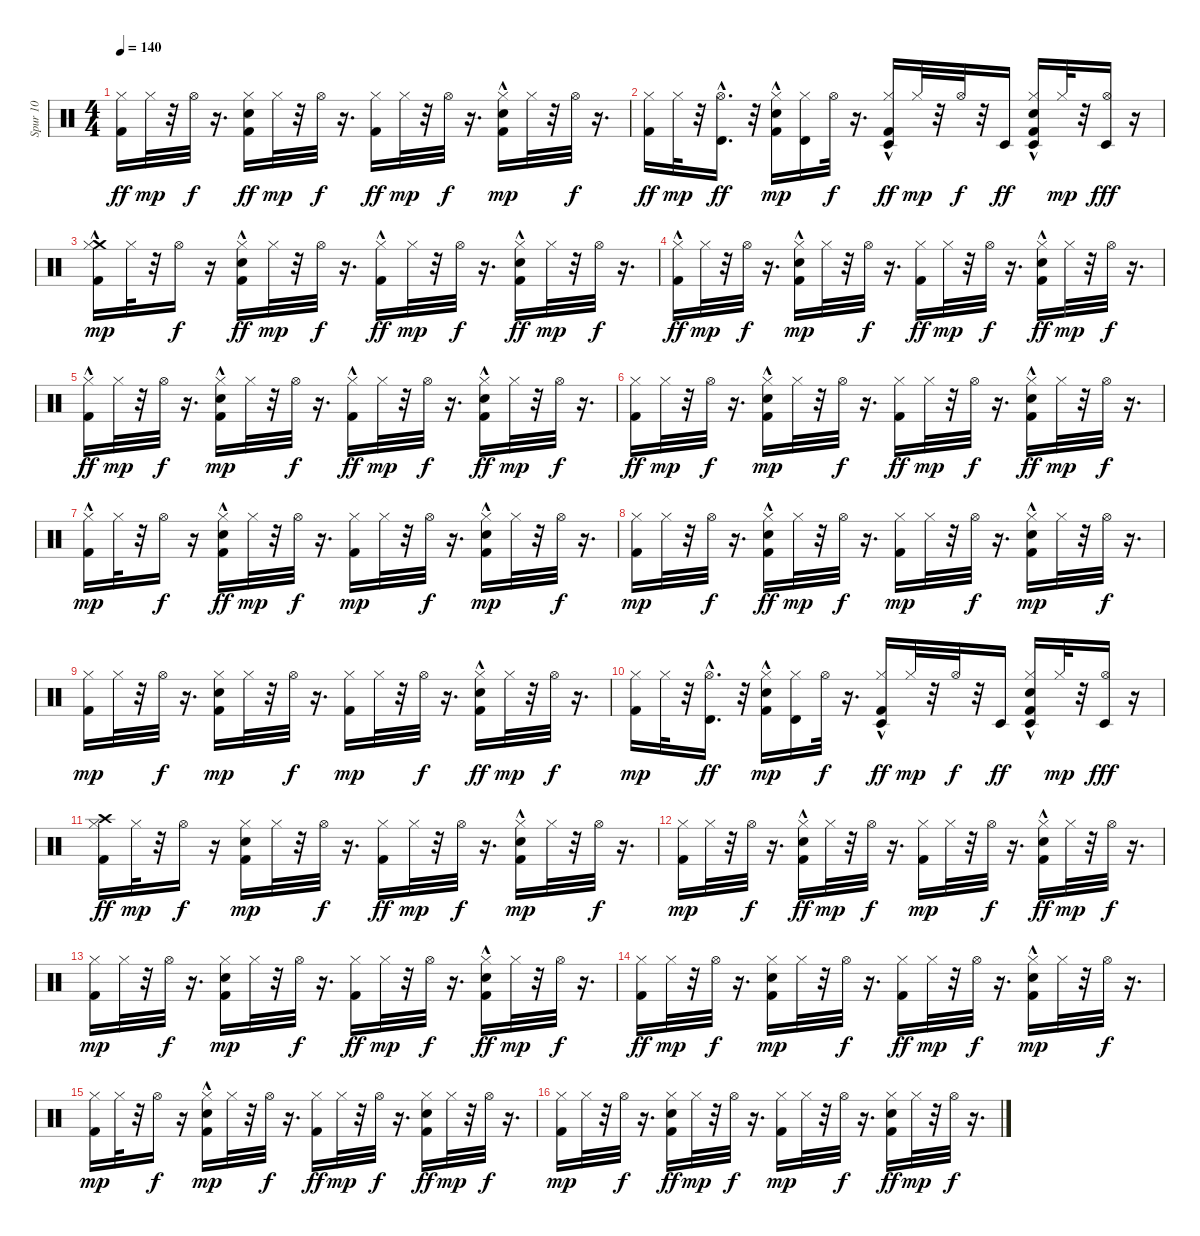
\track ("Spur 10" "Spur 10") {instrument percussion}
\staff {score}
\articulation defaults
\ts (4 4)
\tempo 140
\clef neutral
\ks c
("Hi-Hat (closed)" "Kick (hit) 2").16{dy ff} "Hi-Hat (closed)".32{dy mp} r.32 "Hi-Hat (open)".32{dy f} r.16{d} ("Electric Snare (hit)" "Hi-Hat (closed)" "Kick (hit) 2").16{dy ff} "Hi-Hat (closed)".32{dy mp} r.32 "Hi-Hat (open)".32{dy f} r.16{d} ("Hi-Hat (closed)" "Kick (hit) 2").16{dy ff} "Hi-Hat (closed)".32{dy mp} r.32 "Hi-Hat (open)".32{dy f} r.16{d} ("Kick (hit) 2" "Electric Snare (hit)"{hac} "Hi-Hat (closed)").16{dy mp} "Hi-Hat (closed)".32 r.32 "Hi-Hat (open)".32{dy f} r.16{d} |
("Hi-Hat (closed)" "Kick (hit) 2").16{dy ff} "Hi-Hat (closed)".32{dy mp} r.32 ("Timbale high (hit)"{hac} "Hi-Hat (open)").16{d dy ff} r.32 ("Electric Snare (hit)"{hac} "Kick (hit) 2" "Hi-Hat (closed)").16{dy mp} ("Timbale high (hit)" "Hi-Hat (closed)").16 "Hi-Hat (open)".32{dy f} r.16{d} ("Timbale low (hit)"{hac} "Hi-Hat (closed)" "Kick (hit) 2").16{dy ff} "Hi-Hat (closed)".32{dy mp} r.32 "Hi-Hat (open)".32{dy f} r.32 "Timbale low (hit)".16{dy ff} ("Hi-Hat (closed)" "Timbale low (hit)" "Kick (hit) 2" "Electric Snare (hit)"{hac}).16 "Hi-Hat (closed)".32{dy mp} r.32 ("Timbale low (hit)" "Hi-Hat (open)").16{dy fff} r.16 |
("Crash medium (hit)" "Kick (hit) 2"{hac} "Hi-Hat (closed)").16{dy mp} "Hi-Hat (closed)".32 r.32 "Hi-Hat (open)".16{dy f} r.16 ("Hi-Hat (closed)" "Kick (hit) 2"{hac} "Electric Snare (hit)"{hac}).16{dy ff} "Hi-Hat (closed)".32{dy mp} r.32 "Hi-Hat (open)".32{dy f} r.16{d} ("Hi-Hat (closed)" "Kick (hit) 2"{hac}).16{dy ff} "Hi-Hat (closed)".32{dy mp} r.32 "Hi-Hat (open)".32{dy f} r.16{d} ("Electric Snare (hit)" "Hi-Hat (closed)" "Kick (hit) 2"{hac}).16{dy ff} "Hi-Hat (closed)".32{dy mp} r.32 "Hi-Hat (open)".32{dy f} r.16{d} |
("Hi-Hat (closed)" "Kick (hit) 2"{hac}).16{dy ff} "Hi-Hat (closed)".32{dy mp} r.32 "Hi-Hat (open)".32{dy f} r.16{d} ("Kick (hit) 2"{hac} "Electric Snare (hit)"{hac} "Hi-Hat (closed)").16{dy mp} "Hi-Hat (closed)".32 r.32 "Hi-Hat (open)".32{dy f} r.16{d} ("Hi-Hat (closed)" "Kick (hit) 2").16{dy ff} "Hi-Hat (closed)".32{dy mp} r.32 "Hi-Hat (open)".32{dy f} r.16{d} ("Hi-Hat (closed)" "Kick (hit) 2"{hac} "Electric Snare (hit)"{hac}).16{dy ff} "Hi-Hat (closed)".32{dy mp} r.32 "Hi-Hat (open)".32{dy f} r.16{d} |
("Hi-Hat (closed)" "Kick (hit) 2"{hac}).16{dy ff} "Hi-Hat (closed)".32{dy mp} r.32 "Hi-Hat (open)".32{dy f} r.16{d} ("Electric Snare (hit)" "Kick (hit) 2"{hac} "Hi-Hat (closed)").16{dy mp} "Hi-Hat (closed)".32 r.32 "Hi-Hat (open)".32{dy f} r.16{d} ("Hi-Hat (closed)" "Kick (hit) 2"{hac}).16{dy ff} "Hi-Hat (closed)".32{dy mp} r.32 "Hi-Hat (open)".32{dy f} r.16{d} ("Hi-Hat (closed)" "Kick (hit) 2" "Electric Snare (hit)"{hac}).16{dy ff} "Hi-Hat (closed)".32{dy mp} r.32 "Hi-Hat (open)".32{dy f} r.16{d} |
("Hi-Hat (closed)" "Kick (hit) 2").16{dy ff} "Hi-Hat (closed)".32{dy mp} r.32 "Hi-Hat (open)".32{dy f} r.16{d} ("Kick (hit) 2" "Electric Snare (hit)"{hac} "Hi-Hat (closed)").16{dy mp} "Hi-Hat (closed)".32 r.32 "Hi-Hat (open)".32{dy f} r.16{d} ("Hi-Hat (closed)" "Kick (hit) 2").16{dy ff} "Hi-Hat (closed)".32{dy mp} r.32 "Hi-Hat (open)".32{dy f} r.16{d} ("Hi-Hat (closed)" "Electric Snare (hit)"{hac} "Kick (hit) 2"{hac}).16{dy ff} "Hi-Hat (closed)".32{dy mp} r.32 "Hi-Hat (open)".32{dy f} r.16{d} |
("Kick (hit) 2"{hac} "Hi-Hat (closed)").16{dy mp} "Hi-Hat (closed)".32 r.32 "Hi-Hat (open)".16{dy f} r.16 ("Hi-Hat (closed)" "Electric Snare (hit)"{hac} "Kick (hit) 2"{hac}).16{dy ff} "Hi-Hat (closed)".32{dy mp} r.32 "Hi-Hat (open)".32{dy f} r.16{d} ("Kick (hit) 2" "Hi-Hat (closed)").16{dy mp} "Hi-Hat (closed)".32 r.32 "Hi-Hat (open)".32{dy f} r.16{d} ("Kick (hit) 2"{hac} "Hi-Hat (closed)" "Electric Snare (hit)"{hac}).16{dy mp} "Hi-Hat (closed)".32 r.32 "Hi-Hat (open)".32{dy f} r.16{d} |
("Kick (hit) 2" "Hi-Hat (closed)").16{dy mp} "Hi-Hat (closed)".32 r.32 "Hi-Hat (open)".32{dy f} r.16{d} ("Hi-Hat (closed)" "Kick (hit) 2" "Electric Snare (hit)"{hac}).16{dy ff} "Hi-Hat (closed)".32{dy mp} r.32 "Hi-Hat (open)".32{dy f} r.16{d} ("Kick (hit) 2" "Hi-Hat (closed)").16{dy mp} "Hi-Hat (closed)".32 r.32 "Hi-Hat (open)".32{dy f} r.16{d} ("Electric Snare (hit)"{hac} "Kick (hit) 2" "Hi-Hat (closed)").16{dy mp} "Hi-Hat (closed)".32 r.32 "Hi-Hat (open)".32{dy f} r.16{d} |
("Kick (hit) 2" "Hi-Hat (closed)").16{dy mp} "Hi-Hat (closed)".32 r.32 "Hi-Hat (open)".32{dy f} r.16{d} ("Electric Snare (hit)" "Kick (hit) 2" "Hi-Hat (closed)").16{dy mp} "Hi-Hat (closed)".32 r.32 "Hi-Hat (open)".32{dy f} r.16{d} ("Kick (hit) 2" "Hi-Hat (closed)").16{dy mp} "Hi-Hat (closed)".32 r.32 "Hi-Hat (open)".32{dy f} r.16{d} ("Electric Snare (hit)"{hac} "Hi-Hat (closed)" "Kick (hit) 2").16{dy ff} "Hi-Hat (closed)".32{dy mp} r.32 "Hi-Hat (open)".32{dy f} r.16{d} |
("Kick (hit) 2" "Hi-Hat (closed)").16{dy mp} "Hi-Hat (closed)".32 r.32 ("Hi-Hat (open)" "Timbale high (hit)"{hac}).16{d dy ff} r.32 ("Kick (hit) 2" "Electric Snare (hit)"{hac} "Hi-Hat (closed)").16{dy mp} ("Timbale high (hit)" "Hi-Hat (closed)").16 "Hi-Hat (open)".32{dy f} r.16{d} ("Hi-Hat (closed)" "Kick (hit) 2" "Timbale low (hit)"{hac}).16{dy ff} "Hi-Hat (closed)".32{dy mp} r.32 "Hi-Hat (open)".32{dy f} r.32 "Timbale low (hit)".16{dy ff} ("Hi-Hat (closed)" "Electric Snare (hit)"{hac} "Timbale low (hit)" "Kick (hit) 2").16 "Hi-Hat (closed)".32{dy mp} r.32 ("Timbale low (hit)" "Hi-Hat (open)").16{dy fff} r.16 |
("Hi-Hat (closed)" "Kick (hit) 2" "Crash high (hit)").16{dy ff} "Hi-Hat (closed)".32{dy mp} r.32 "Hi-Hat (open)".16{dy f} r.16 ("Kick (hit) 2" "Hi-Hat (closed)" "Electric Snare (hit)").16{dy mp} "Hi-Hat (closed)".32 r.32 "Hi-Hat (open)".32{dy f} r.16{d} ("Hi-Hat (closed)" "Kick (hit) 2").16{dy ff} "Hi-Hat (closed)".32{dy mp} r.32 "Hi-Hat (open)".32{dy f} r.16{d} ("Electric Snare (hit)"{hac} "Kick (hit) 2" "Hi-Hat (closed)").16{dy mp} "Hi-Hat (closed)".32 r.32 "Hi-Hat (open)".32{dy f} r.16{d} |
("Kick (hit) 2" "Hi-Hat (closed)").16{dy mp} "Hi-Hat (closed)".32 r.32 "Hi-Hat (open)".32{dy f} r.16{d} ("Electric Snare (hit)"{hac} "Hi-Hat (closed)" "Kick (hit) 2").16{dy ff} "Hi-Hat (closed)".32{dy mp} r.32 "Hi-Hat (open)".32{dy f} r.16{d} ("Kick (hit) 2" "Hi-Hat (closed)").16{dy mp} "Hi-Hat (closed)".32 r.32 "Hi-Hat (open)".32{dy f} r.16{d} ("Electric Snare (hit)"{hac} "Hi-Hat (closed)" "Kick (hit) 2").16{dy ff} "Hi-Hat (closed)".32{dy mp} r.32 "Hi-Hat (open)".32{dy f} r.16{d} |
("Kick (hit) 2" "Hi-Hat (closed)").16{dy mp} "Hi-Hat (closed)".32 r.32 "Hi-Hat (open)".32{dy f} r.16{d} ("Electric Snare (hit)" "Kick (hit) 2" "Hi-Hat (closed)").16{dy mp} "Hi-Hat (closed)".32 r.32 "Hi-Hat (open)".32{dy f} r.16{d} ("Hi-Hat (closed)" "Kick (hit) 2").16{dy ff} "Hi-Hat (closed)".32{dy mp} r.32 "Hi-Hat (open)".32{dy f} r.16{d} ("Hi-Hat (closed)" "Electric Snare (hit)"{hac} "Kick (hit) 2").16{dy ff} "Hi-Hat (closed)".32{dy mp} r.32 "Hi-Hat (open)".32{dy f} r.16{d} |
("Hi-Hat (closed)" "Kick (hit) 2").16{dy ff} "Hi-Hat (closed)".32{dy mp} r.32 "Hi-Hat (open)".32{dy f} r.16{d} ("Electric Snare (hit)" "Kick (hit) 2" "Hi-Hat (closed)").16{dy mp} "Hi-Hat (closed)".32 r.32 "Hi-Hat (open)".32{dy f} r.16{d} ("Hi-Hat (closed)" "Kick (hit) 2").16{dy ff} "Hi-Hat (closed)".32{dy mp} r.32 "Hi-Hat (open)".32{dy f} r.16{d} ("Kick (hit) 2" "Hi-Hat (closed)" "Electric Snare (hit)"{hac}).16{dy mp} "Hi-Hat (closed)".32 r.32 "Hi-Hat (open)".32{dy f} r.16{d} |
("Kick (hit) 2" "Hi-Hat (closed)").16{dy mp} "Hi-Hat (closed)".32 r.32 "Hi-Hat (open)".16{dy f} r.16 ("Kick (hit) 2" "Electric Snare (hit)"{hac} "Hi-Hat (closed)").16{dy mp} "Hi-Hat (closed)".32 r.32 "Hi-Hat (open)".32{dy f} r.16{d} ("Hi-Hat (closed)" "Kick (hit) 2").16{dy ff} "Hi-Hat (closed)".32{dy mp} r.32 "Hi-Hat (open)".32{dy f} r.16{d} ("Hi-Hat (closed)" "Electric Snare (hit)" "Kick (hit) 2").16{dy ff} "Hi-Hat (closed)".32{dy mp} r.32 "Hi-Hat (open)".32{dy f} r.16{d} |
("Kick (hit) 2" "Hi-Hat (closed)").16{dy mp} "Hi-Hat (closed)".32 r.32 "Hi-Hat (open)".32{dy f} r.16{d} ("Hi-Hat (closed)" "Electric Snare (hit)" "Kick (hit) 2").16{dy ff} "Hi-Hat (closed)".32{dy mp} r.32 "Hi-Hat (open)".32{dy f} r.16{d} ("Kick (hit) 2" "Hi-Hat (closed)").16{dy mp} "Hi-Hat (closed)".32 r.32 "Hi-Hat (open)".32{dy f} r.16{d} ("Electric Snare (hit)" "Hi-Hat (closed)" "Kick (hit) 2").16{dy ff} "Hi-Hat (closed)".32{dy mp} r.32 "Hi-Hat (open)".32{dy f} r.16{d}
